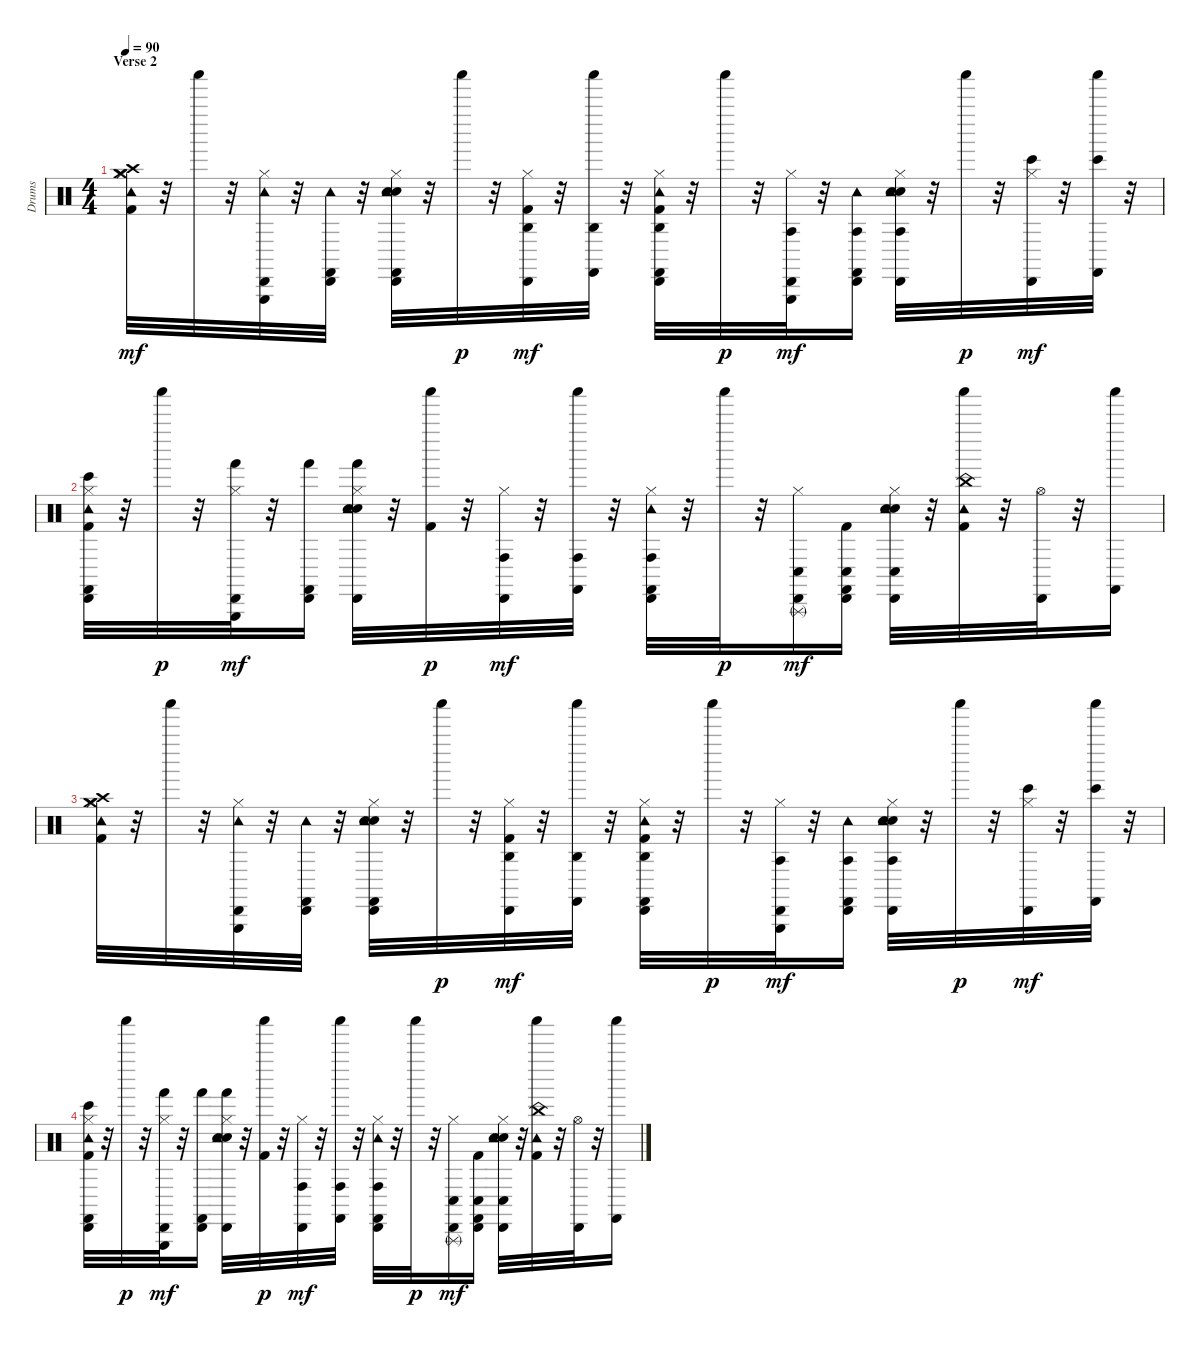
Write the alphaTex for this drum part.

\track ("Drums" "Drums") {instrument percussion}
\staff {score}
\articulation defaults
\ts (4 4)
\section ("" "Verse 2")
\tempo 90
\clef neutral
\ks c
("Hi-Hat (closed)" "Kick (hit) 2" "Tambourine (hit)" "Crash high (hit)" "Crash medium (hit)" "Hi-Hat (closed)").32{dy mf} r.32 "Shaker (hit)".32 r.32 ("Hi-Hat (closed)" "Tambourine (hit)" "Cabasa (hit)" "Triangle (hit)").32 r.32 ("Tambourine (hit)" "Cabasa (hit)" "Castanets (hit)").32 r.32 ("Electric Snare (hit)" "Hi-Hat (closed)" "Snare (hit) 2" "Tambourine (hit)" "Cabasa (hit)" "Castanets (hit)").32 r.32 "Shaker (hit)".32{dy p} r.32 ("Hi-Hat (closed)" "Kick (hit) 2" "Agogo high (hit)" "Cabasa (hit)").32{dy mf} r.32 ("Agogo high (hit)" "Shaker (hit)" "Castanets (hit)").32 r.32 ("Hi-Hat (closed)" "Kick (hit) 2" "Agogo high (hit)" "Cabasa (hit)" "Tambourine (hit)" "Castanets (hit)").32 r.32 "Shaker (hit)".32{dy p} r.32 ("Hi-Hat (closed)" "Agogo tow (hit)" "Cabasa (hit)" "Triangle (hit)").32{dy mf} r.32 ("Agogo tow (hit)" "Cabasa (hit)" "Tambourine (hit)" "Castanets (hit)").16 ("Electric Snare (hit)" "Hi-Hat (closed)" "Snare (hit) 2" "Agogo tow (hit)" "Tambourine (hit)" "Cabasa (hit)").32 r.32 "Shaker (hit)".32{dy p} r.32 ("Hi-Hat (closed)" "Bongo High (hit)" "Cabasa (hit)").32{dy mf} r.32 ("Bongo High (hit)" "Shaker (hit)" "Castanets (hit)").32 r.32 |
("Hi-Hat (closed)" "Kick (hit) 2" "Bongo High (hit)" "Cabasa (hit)" "Tambourine (hit)" "Castanets (hit)").32 r.32 "Shaker (hit)".32{dy p} r.32 ("Hi-Hat (closed)" "Hand (hit)" "Cabasa (hit)" "Triangle (hit)").32{dy mf} r.32 ("Hand (hit)" "Cabasa (hit)" "Castanets (hit)").16 ("Electric Snare (hit)" "Hi-Hat (closed)" "Snare (hit) 2" "Hand (hit)" "Cabasa (hit)" "Tambourine (hit)").32 r.32 ("Kick (hit) 2" "Shaker (hit)").32{dy p} r.32 ("Hi-Hat (closed)" "Conga high (hit)" "Cabasa (hit)").32{dy mf} r.32 ("Conga high (hit)" "Shaker (hit)" "Castanets (hit)").32 r.32 ("Hi-Hat (closed)" "Conga high (hit)" "Cabasa (hit)" "Tambourine (hit)" "Castanets (hit)").32 r.32 "Shaker (hit)".32{dy p} r.32 ("Hi-Hat (closed)" "Conga low (hit)" "Cabasa (hit)" "Triangle (rnute)").16{dy mf} ("Kick (hit) 2" "Conga low (hit)" "Cabasa (hit)" "Castanets (hit)").16 ("Electric Snare (hit)" "Hi-Hat (closed)" "Snare (hit) 2" "Conga low (hit)" "Cabasa (hit)" "Tambourine (hit)").32 r.32 ("Kick (hit) 2" "Tambourine (hit)" "Shaker (hit)" "China (hit)").32 r.32 ("Hi-Hat (open)" "Cabasa (hit)").32 r.32 ("Shaker (hit)" "Castanets (hit)").16 |
("Hi-Hat (closed)" "Kick (hit) 2" "Tambourine (hit)" "Crash high (hit)" "Crash medium (hit)" "Hi-Hat (closed)").32 r.32 "Shaker (hit)".32 r.32 ("Hi-Hat (closed)" "Tambourine (hit)" "Cabasa (hit)" "Triangle (hit)").32 r.32 ("Tambourine (hit)" "Cabasa (hit)" "Castanets (hit)").32 r.32 ("Electric Snare (hit)" "Hi-Hat (closed)" "Snare (hit) 2" "Tambourine (hit)" "Cabasa (hit)" "Castanets (hit)").32 r.32 "Shaker (hit)".32{dy p} r.32 ("Hi-Hat (closed)" "Kick (hit) 2" "Agogo high (hit)" "Cabasa (hit)").32{dy mf} r.32 ("Agogo high (hit)" "Shaker (hit)" "Castanets (hit)").32 r.32 ("Hi-Hat (closed)" "Kick (hit) 2" "Agogo high (hit)" "Cabasa (hit)" "Tambourine (hit)" "Castanets (hit)").32 r.32 "Shaker (hit)".32{dy p} r.32 ("Hi-Hat (closed)" "Agogo tow (hit)" "Cabasa (hit)" "Triangle (hit)").32{dy mf} r.32 ("Agogo tow (hit)" "Cabasa (hit)" "Tambourine (hit)" "Castanets (hit)").16 ("Electric Snare (hit)" "Hi-Hat (closed)" "Snare (hit) 2" "Agogo tow (hit)" "Tambourine (hit)" "Cabasa (hit)").32 r.32 "Shaker (hit)".32{dy p} r.32 ("Hi-Hat (closed)" "Bongo High (hit)" "Cabasa (hit)").32{dy mf} r.32 ("Bongo High (hit)" "Shaker (hit)" "Castanets (hit)").32 r.32 |
("Hi-Hat (closed)" "Kick (hit) 2" "Bongo High (hit)" "Cabasa (hit)" "Tambourine (hit)" "Castanets (hit)").32 r.32 "Shaker (hit)".32{dy p} r.32 ("Hi-Hat (closed)" "Hand (hit)" "Cabasa (hit)" "Triangle (hit)").32{dy mf} r.32 ("Hand (hit)" "Cabasa (hit)" "Castanets (hit)").16 ("Electric Snare (hit)" "Hi-Hat (closed)" "Snare (hit) 2" "Hand (hit)" "Cabasa (hit)" "Tambourine (hit)").32 r.32 ("Kick (hit) 2" "Shaker (hit)").32{dy p} r.32 ("Hi-Hat (closed)" "Conga high (hit)" "Cabasa (hit)").32{dy mf} r.32 ("Conga high (hit)" "Shaker (hit)" "Castanets (hit)").32 r.32 ("Hi-Hat (closed)" "Conga high (hit)" "Cabasa (hit)" "Tambourine (hit)" "Castanets (hit)").32 r.32 "Shaker (hit)".32{dy p} r.32 ("Hi-Hat (closed)" "Conga low (hit)" "Cabasa (hit)" "Triangle (rnute)").16{dy mf} ("Kick (hit) 2" "Conga low (hit)" "Cabasa (hit)" "Castanets (hit)").16 ("Electric Snare (hit)" "Hi-Hat (closed)" "Snare (hit) 2" "Conga low (hit)" "Cabasa (hit)" "Tambourine (hit)").32 r.32 ("Kick (hit) 2" "Tambourine (hit)" "Shaker (hit)" "China (hit)").32 r.32 ("Hi-Hat (open)" "Cabasa (hit)").32 r.32 ("Shaker (hit)" "Castanets (hit)").16
